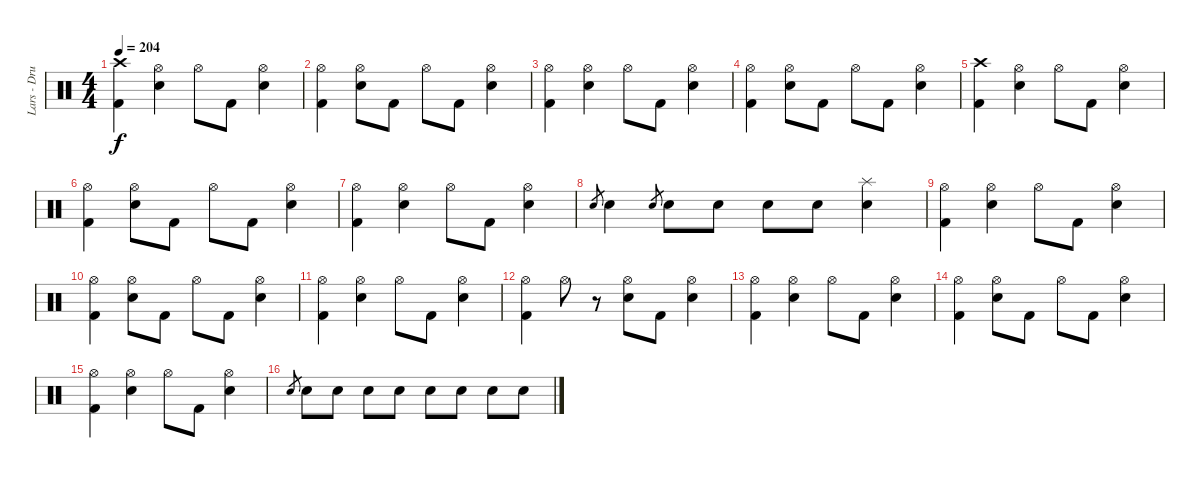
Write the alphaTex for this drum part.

\track ("Lars - Drums" "Lars - Dru") {instrument percussion}
\staff {score}
\articulation defaults
\ts (4 4)
\tempo 204
\clef neutral
\ks c
("Crash high (hit)" "Kick (hit) 2").4{dy f} ("Hi-Hat (open)" "Electric Snare (hit)").4 "Hi-Hat (open)".8 "Kick (hit) 2".8 ("Hi-Hat (open)" "Electric Snare (hit)").4 |
("Hi-Hat (open)" "Kick (hit) 2").4 ("Hi-Hat (open)" "Electric Snare (hit)").8 "Kick (hit) 2".8 "Hi-Hat (open)".8 "Kick (hit) 2".8 ("Hi-Hat (open)" "Electric Snare (hit)").4 |
("Hi-Hat (open)" "Kick (hit) 2").4 ("Hi-Hat (open)" "Electric Snare (hit)").4 "Hi-Hat (open)".8 "Kick (hit) 2".8 ("Hi-Hat (open)" "Electric Snare (hit)").4 |
("Hi-Hat (open)" "Kick (hit) 2").4 ("Hi-Hat (open)" "Electric Snare (hit)").8 "Kick (hit) 2".8 "Hi-Hat (open)".8 "Kick (hit) 2".8 ("Hi-Hat (open)" "Electric Snare (hit)").4 |
("Crash high (hit)" "Kick (hit) 2").4 ("Hi-Hat (open)" "Electric Snare (hit)").4 "Hi-Hat (open)".8 "Kick (hit) 2".8 ("Hi-Hat (open)" "Electric Snare (hit)").4 |
("Hi-Hat (open)" "Kick (hit) 2").4 ("Hi-Hat (open)" "Electric Snare (hit)").8 "Kick (hit) 2".8 "Hi-Hat (open)".8 "Kick (hit) 2".8 ("Hi-Hat (open)" "Electric Snare (hit)").4 |
("Hi-Hat (open)" "Kick (hit) 2").4 ("Hi-Hat (open)" "Electric Snare (hit)").4 "Hi-Hat (open)".8 "Kick (hit) 2".8 ("Hi-Hat (open)" "Electric Snare (hit)").4 |
"Electric Snare (hit)"{sl}.8{gr} "Electric Snare (hit)".4 "Electric Snare (hit)"{sl}.8{gr} "Electric Snare (hit)".8 "Electric Snare (hit)".8 "Electric Snare (hit)".8 "Electric Snare (hit)".8 ("Splash (hit)" "Electric Snare (hit)").4 |
("Hi-Hat (open)" "Kick (hit) 2").4 ("Hi-Hat (open)" "Electric Snare (hit)").4 "Hi-Hat (open)".8 "Kick (hit) 2".8 ("Hi-Hat (open)" "Electric Snare (hit)").4 |
("Hi-Hat (open)" "Kick (hit) 2").4 ("Hi-Hat (open)" "Electric Snare (hit)").8 "Kick (hit) 2".8 "Hi-Hat (open)".8 "Kick (hit) 2".8 ("Hi-Hat (open)" "Electric Snare (hit)").4 |
("Hi-Hat (open)" "Kick (hit) 2").4 ("Hi-Hat (open)" "Electric Snare (hit)").4 "Hi-Hat (open)".8 "Kick (hit) 2".8 ("Hi-Hat (open)" "Electric Snare (hit)").4 |
("Hi-Hat (open)" "Kick (hit) 2").4 "Hi-Hat (open)".8 r.8 ("Hi-Hat (open)" "Electric Snare (hit)").8 "Kick (hit) 2".8 ("Hi-Hat (open)" "Electric Snare (hit)").4 |
("Hi-Hat (open)" "Kick (hit) 2").4 ("Hi-Hat (open)" "Electric Snare (hit)").4 "Hi-Hat (open)".8 "Kick (hit) 2".8 ("Hi-Hat (open)" "Electric Snare (hit)").4 |
("Hi-Hat (open)" "Kick (hit) 2").4 ("Hi-Hat (open)" "Electric Snare (hit)").8 "Kick (hit) 2".8 "Hi-Hat (open)".8 "Kick (hit) 2".8 ("Hi-Hat (open)" "Electric Snare (hit)").4 |
("Hi-Hat (open)" "Kick (hit) 2").4 ("Hi-Hat (open)" "Electric Snare (hit)").4 "Hi-Hat (open)".8 "Kick (hit) 2".8 ("Hi-Hat (open)" "Electric Snare (hit)").4 |
"Electric Snare (hit)"{sl}.8{gr} "Electric Snare (hit)".8 "Electric Snare (hit)".8 "Electric Snare (hit)".8 "Electric Snare (hit)".8 "Electric Snare (hit)".8 "Electric Snare (hit)".8 "Electric Snare (hit)".8 "Electric Snare (hit)".8
